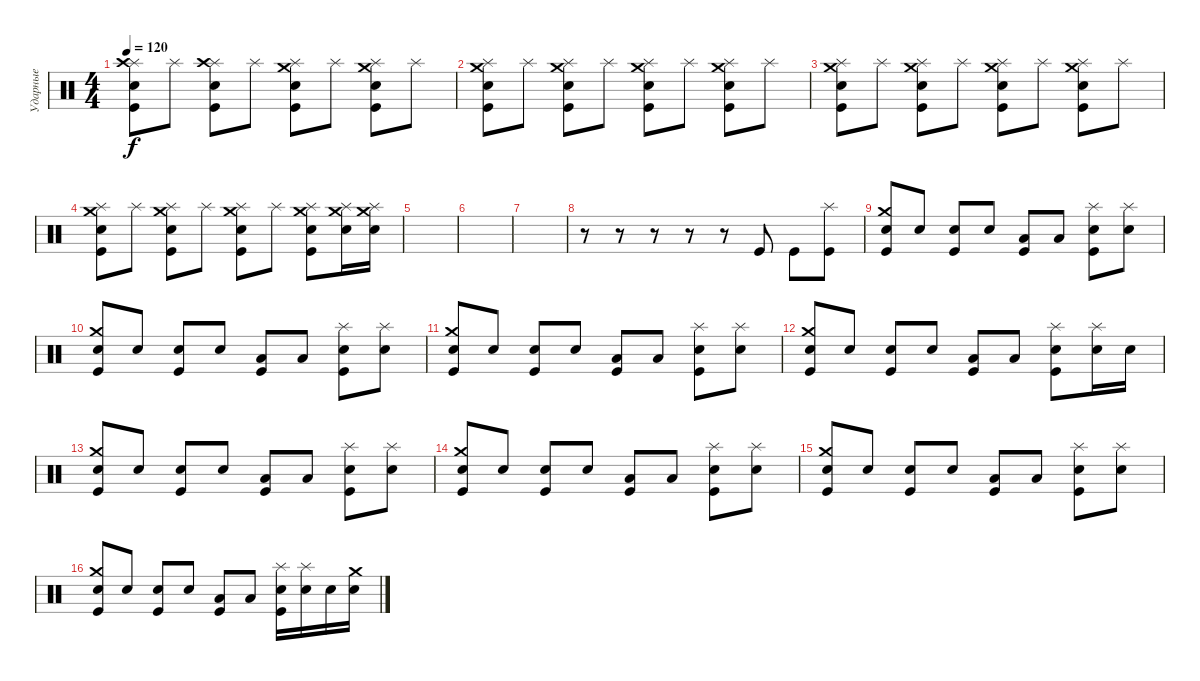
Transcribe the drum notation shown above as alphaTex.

\track ("Ударные" "Ударные") {instrument percussion}
\staff {score}
\articulation defaults
\ts (4 4)
\tempo 120
\clef neutral
\ks c
("Splash (hit)" "Crash high (hit)" "Electric Snare (hit)" "Kick (hit)").8{dy f} "Splash (hit)".8 ("Splash (hit)" "Crash high (hit)" "Electric Snare (hit)" "Kick (hit)").8 "Splash (hit)".8 ("Splash (hit)" "Crash medium (hit)" "Electric Snare (hit)" "Kick (hit)").8 "Splash (hit)".8 ("Splash (hit)" "Crash medium (hit)" "Electric Snare (hit)" "Kick (hit)").8 "Splash (hit)".8 |
("Splash (hit)" "Crash medium (hit)" "Electric Snare (hit)" "Kick (hit)").8 "Splash (hit)".8 ("Splash (hit)" "Crash medium (hit)" "Electric Snare (hit)" "Kick (hit)").8 "Splash (hit)".8 ("Splash (hit)" "Crash medium (hit)" "Electric Snare (hit)" "Kick (hit)").8 "Splash (hit)".8 ("Splash (hit)" "Crash medium (hit)" "Electric Snare (hit)" "Kick (hit)").8 "Splash (hit)".8 |
("Splash (hit)" "Crash medium (hit)" "Electric Snare (hit)" "Kick (hit)").8 "Splash (hit)".8 ("Splash (hit)" "Crash medium (hit)" "Electric Snare (hit)" "Kick (hit)").8 "Splash (hit)".8 ("Splash (hit)" "Crash medium (hit)" "Electric Snare (hit)" "Kick (hit)").8 "Splash (hit)".8 ("Splash (hit)" "Crash medium (hit)" "Electric Snare (hit)" "Kick (hit)").8 "Splash (hit)".8 |
("Splash (hit)" "Crash medium (hit)" "Electric Snare (hit)" "Kick (hit)").8 "Splash (hit)".8 ("Splash (hit)" "Crash medium (hit)" "Electric Snare (hit)" "Kick (hit)").8 "Splash (hit)".8 ("Splash (hit)" "Crash medium (hit)" "Electric Snare (hit)" "Kick (hit)").8 "Splash (hit)".8 ("Splash (hit)" "Crash medium (hit)" "Electric Snare (hit)" "Kick (hit)").8 ("Splash (hit)" "Crash medium (hit)" "Snare (hit) 2").16 ("Splash (hit)" "Crash medium (hit)" "Snare (hit) 2").16 |
|
|
|
r.8 r.8 r.8 r.8 r.8 "Kick (hit)".8 "Kick (hit)".8 ("Splash (hit)" "Kick (hit)").8 |
("Crash medium (hit)" "Snare (hit) 2" "Kick (hit)").8 "Snare (hit) 2".8 ("Electric Snare (hit)" "Kick (hit)").8 "Electric Snare (hit)".8 ("Low Floor Tom (hit)" "Kick (hit)").8 "Low Floor Tom (hit)".8 ("Splash (hit)" "Electric Snare (hit)" "Kick (hit)").8 ("Splash (hit)" "Electric Snare (hit)").8 |
("Crash medium (hit)" "Snare (hit) 2" "Kick (hit)").8 "Snare (hit) 2".8 ("Electric Snare (hit)" "Kick (hit)").8 "Electric Snare (hit)".8 ("Low Floor Tom (hit)" "Kick (hit)").8 "Low Floor Tom (hit)".8 ("Splash (hit)" "Electric Snare (hit)" "Kick (hit)").8 ("Splash (hit)" "Electric Snare (hit)").8 |
("Crash medium (hit)" "Snare (hit) 2" "Kick (hit)").8 "Snare (hit) 2".8 ("Electric Snare (hit)" "Kick (hit)").8 "Electric Snare (hit)".8 ("Low Floor Tom (hit)" "Kick (hit)").8 "Low Floor Tom (hit)".8 ("Splash (hit)" "Electric Snare (hit)" "Kick (hit)").8 ("Splash (hit)" "Electric Snare (hit)").8 |
("Crash medium (hit)" "Snare (hit) 2" "Kick (hit)").8 "Snare (hit) 2".8 ("Electric Snare (hit)" "Kick (hit)").8 "Electric Snare (hit)".8 ("Low Floor Tom (hit)" "Kick (hit)").8 "Low Floor Tom (hit)".8 ("Splash (hit)" "Electric Snare (hit)" "Kick (hit)").8 ("Splash (hit)" "Electric Snare (hit)").16 "Electric Snare (hit)".16 |
("Crash medium (hit)" "Snare (hit) 2" "Kick (hit)").8 "Snare (hit) 2".8 ("Electric Snare (hit)" "Kick (hit)").8 "Electric Snare (hit)".8 ("Low Floor Tom (hit)" "Kick (hit)").8 "Low Floor Tom (hit)".8 ("Splash (hit)" "Electric Snare (hit)" "Kick (hit)").8 ("Splash (hit)" "Electric Snare (hit)").8 |
("Crash medium (hit)" "Snare (hit) 2" "Kick (hit)").8 "Snare (hit) 2".8 ("Electric Snare (hit)" "Kick (hit)").8 "Electric Snare (hit)".8 ("Low Floor Tom (hit)" "Kick (hit)").8 "Low Floor Tom (hit)".8 ("Splash (hit)" "Electric Snare (hit)" "Kick (hit)").8 ("Splash (hit)" "Electric Snare (hit)").8 |
("Crash medium (hit)" "Snare (hit) 2" "Kick (hit)").8 "Snare (hit) 2".8 ("Electric Snare (hit)" "Kick (hit)").8 "Electric Snare (hit)".8 ("Low Floor Tom (hit)" "Kick (hit)").8 "Low Floor Tom (hit)".8 ("Splash (hit)" "Electric Snare (hit)" "Kick (hit)").8 ("Splash (hit)" "Electric Snare (hit)").8 |
("Crash medium (hit)" "Snare (hit) 2" "Kick (hit)").8 "Snare (hit) 2".8 ("Electric Snare (hit)" "Kick (hit)").8 "Electric Snare (hit)".8 ("Low Floor Tom (hit)" "Kick (hit)").8 "Low Floor Tom (hit)".8 ("Splash (hit)" "Electric Snare (hit)" "Kick (hit)").16 ("Splash (hit)" "Snare (hit) 2").16 "Snare (hit) 2".16 ("Crash medium (hit)" "Snare (hit) 2").16
